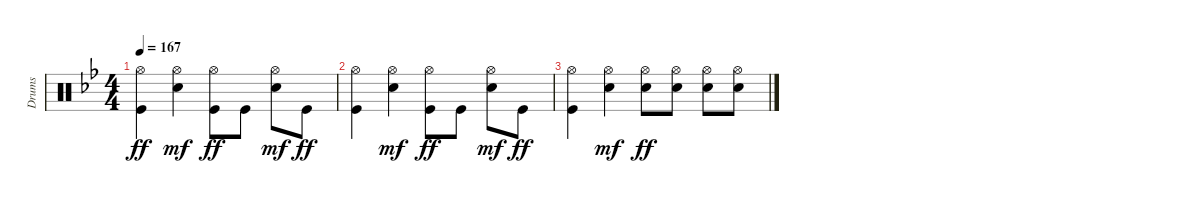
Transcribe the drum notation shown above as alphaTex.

\track ("Drums" "Drums") {instrument percussion}
\staff {score}
\articulation defaults
\ts (4 4)
\tempo 167
\clef neutral
\ks bb
("Hi-Hat (open)" "Kick (hit)").4{dy ff} ("Hi-Hat (open)" "Electric Snare (hit)").4{dy mf} ("Hi-Hat (open)" "Kick (hit)").8{dy ff} "Kick (hit)".8 ("Hi-Hat (open)" "Electric Snare (hit)").8{dy mf} "Kick (hit)".8{dy ff} |
("Hi-Hat (open)" "Kick (hit)").4 ("Hi-Hat (open)" "Electric Snare (hit)").4{dy mf} ("Hi-Hat (open)" "Kick (hit)").8{dy ff} "Kick (hit)".8 ("Hi-Hat (open)" "Electric Snare (hit)").8{dy mf} "Kick (hit)".8{dy ff} |
("Hi-Hat (open)" "Kick (hit)").4 ("Hi-Hat (open)" "Electric Snare (hit)").4{dy mf} ("Hi-Hat (open)" "Electric Snare (hit)").8{dy ff} ("Hi-Hat (open)" "Electric Snare (hit)").8 ("Hi-Hat (open)" "Electric Snare (hit)").8 ("Hi-Hat (open)" "Electric Snare (hit)").8
